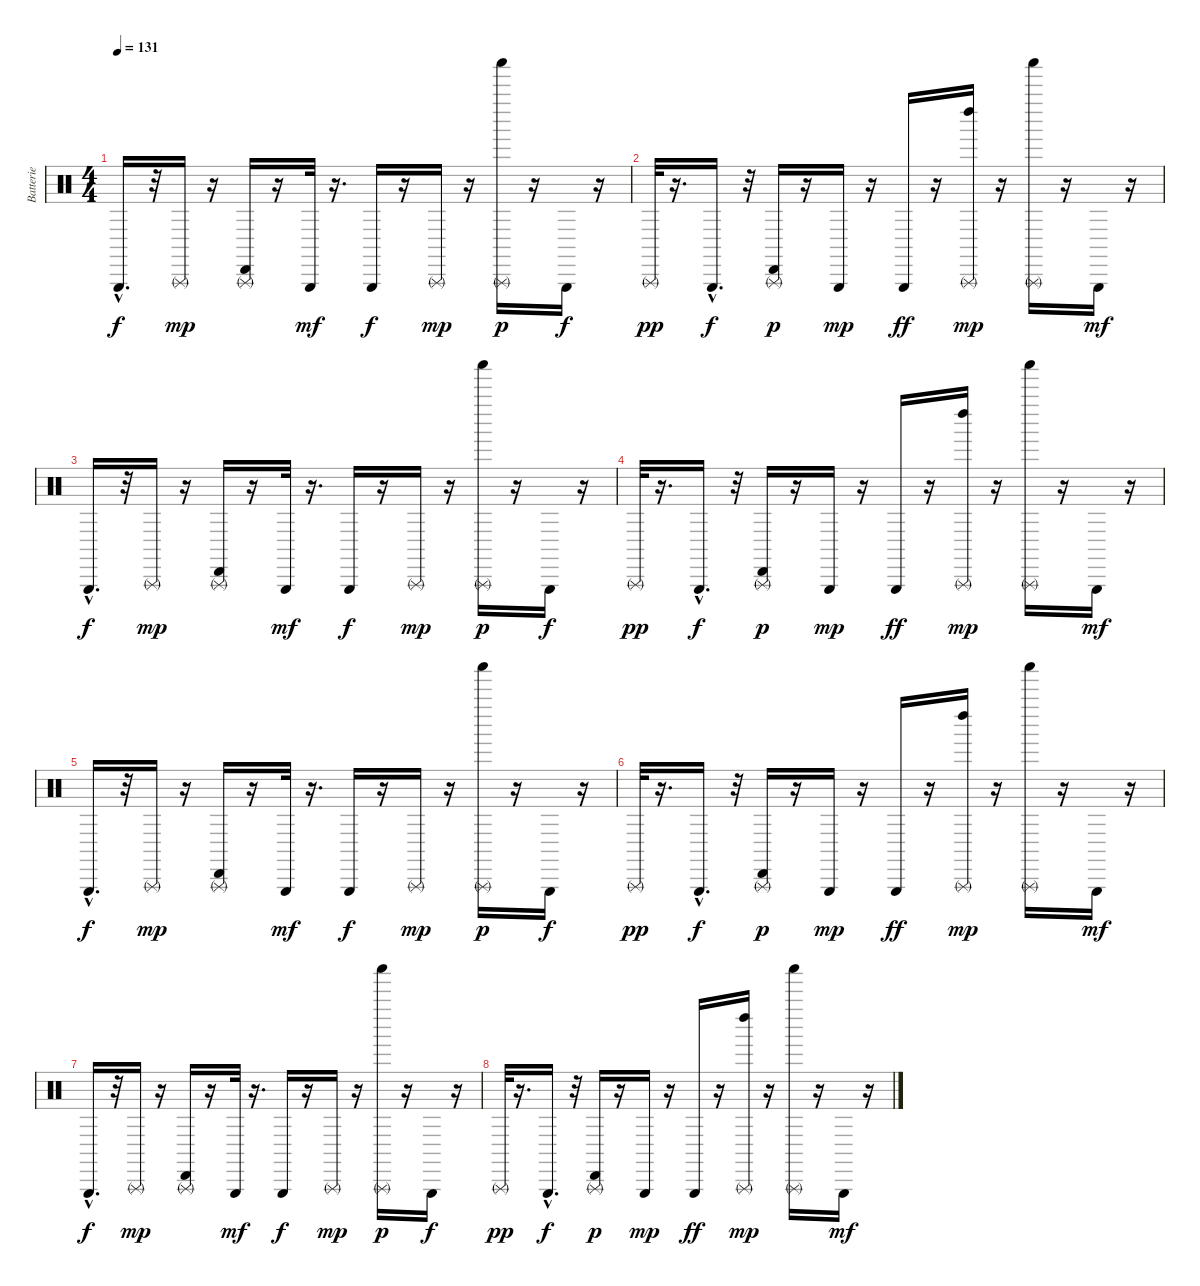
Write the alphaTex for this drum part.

\track ("Batterie" "Batterie") {instrument percussion}
\staff {score}
\articulation defaults
\ts (4 4)
\tempo 131
\clef neutral
\ks c "Triangle (hit)"{hac}.16{d dy f}
r.32 "Triangle (rnute)".16{dy mp} r.16 ("Cabasa (hit)" "Triangle (rnute)").16 r.16 "Triangle (hit)".32{dy mf} r.16{d} "Triangle (hit)".16{dy f} r.16 "Triangle (rnute)".16{dy mp} r.16 ("Shaker (hit)" "Triangle (rnute)").16{dy p} r.16 "Triangle (hit)".16{dy f} r.16 |
"Triangle (rnute)".32{dy pp} r.16{d} "Triangle (hit)"{hac}.16{d dy f} r.32 ("Cabasa (hit)" "Triangle (rnute)").16{dy p} r.16 "Triangle (hit)".16{dy mp} r.16 "Triangle (hit)".16{dy ff} r.16 ("Left Maraca (hit)" "Triangle (rnute)").16{dy mp} r.16 ("Shaker (hit)" "Triangle (rnute)").16 r.16 "Triangle (hit)".16{dy mf} r.16 |
"Triangle (hit)"{hac}.16{d dy f} r.32 "Triangle (rnute)".16{dy mp} r.16 ("Cabasa (hit)" "Triangle (rnute)").16 r.16 "Triangle (hit)".32{dy mf} r.16{d} "Triangle (hit)".16{dy f} r.16 "Triangle (rnute)".16{dy mp} r.16 ("Shaker (hit)" "Triangle (rnute)").16{dy p} r.16 "Triangle (hit)".16{dy f} r.16 |
"Triangle (rnute)".32{dy pp} r.16{d} "Triangle (hit)"{hac}.16{d dy f} r.32 ("Cabasa (hit)" "Triangle (rnute)").16{dy p} r.16 "Triangle (hit)".16{dy mp} r.16 "Triangle (hit)".16{dy ff} r.16 ("Left Maraca (hit)" "Triangle (rnute)").16{dy mp} r.16 ("Shaker (hit)" "Triangle (rnute)").16 r.16 "Triangle (hit)".16{dy mf} r.16 |
"Triangle (hit)"{hac}.16{d dy f} r.32 "Triangle (rnute)".16{dy mp} r.16 ("Cabasa (hit)" "Triangle (rnute)").16 r.16 "Triangle (hit)".32{dy mf} r.16{d} "Triangle (hit)".16{dy f} r.16 "Triangle (rnute)".16{dy mp} r.16 ("Shaker (hit)" "Triangle (rnute)").16{dy p} r.16 "Triangle (hit)".16{dy f} r.16 |
"Triangle (rnute)".32{dy pp} r.16{d} "Triangle (hit)"{hac}.16{d dy f} r.32 ("Cabasa (hit)" "Triangle (rnute)").16{dy p} r.16 "Triangle (hit)".16{dy mp} r.16 "Triangle (hit)".16{dy ff} r.16 ("Left Maraca (hit)" "Triangle (rnute)").16{dy mp} r.16 ("Shaker (hit)" "Triangle (rnute)").16 r.16 "Triangle (hit)".16{dy mf} r.16 |
"Triangle (hit)"{hac}.16{d dy f} r.32 "Triangle (rnute)".16{dy mp} r.16 ("Cabasa (hit)" "Triangle (rnute)").16 r.16 "Triangle (hit)".32{dy mf} r.16{d} "Triangle (hit)".16{dy f} r.16 "Triangle (rnute)".16{dy mp} r.16 ("Shaker (hit)" "Triangle (rnute)").16{dy p} r.16 "Triangle (hit)".16{dy f} r.16 |
"Triangle (rnute)".32{dy pp} r.16{d} "Triangle (hit)"{hac}.16{d dy f} r.32 ("Cabasa (hit)" "Triangle (rnute)").16{dy p} r.16 "Triangle (hit)".16{dy mp} r.16 "Triangle (hit)".16{dy ff} r.16 ("Left Maraca (hit)" "Triangle (rnute)").16{dy mp} r.16 ("Shaker (hit)" "Triangle (rnute)").16 r.16 "Triangle (hit)".16{dy mf} r.16
